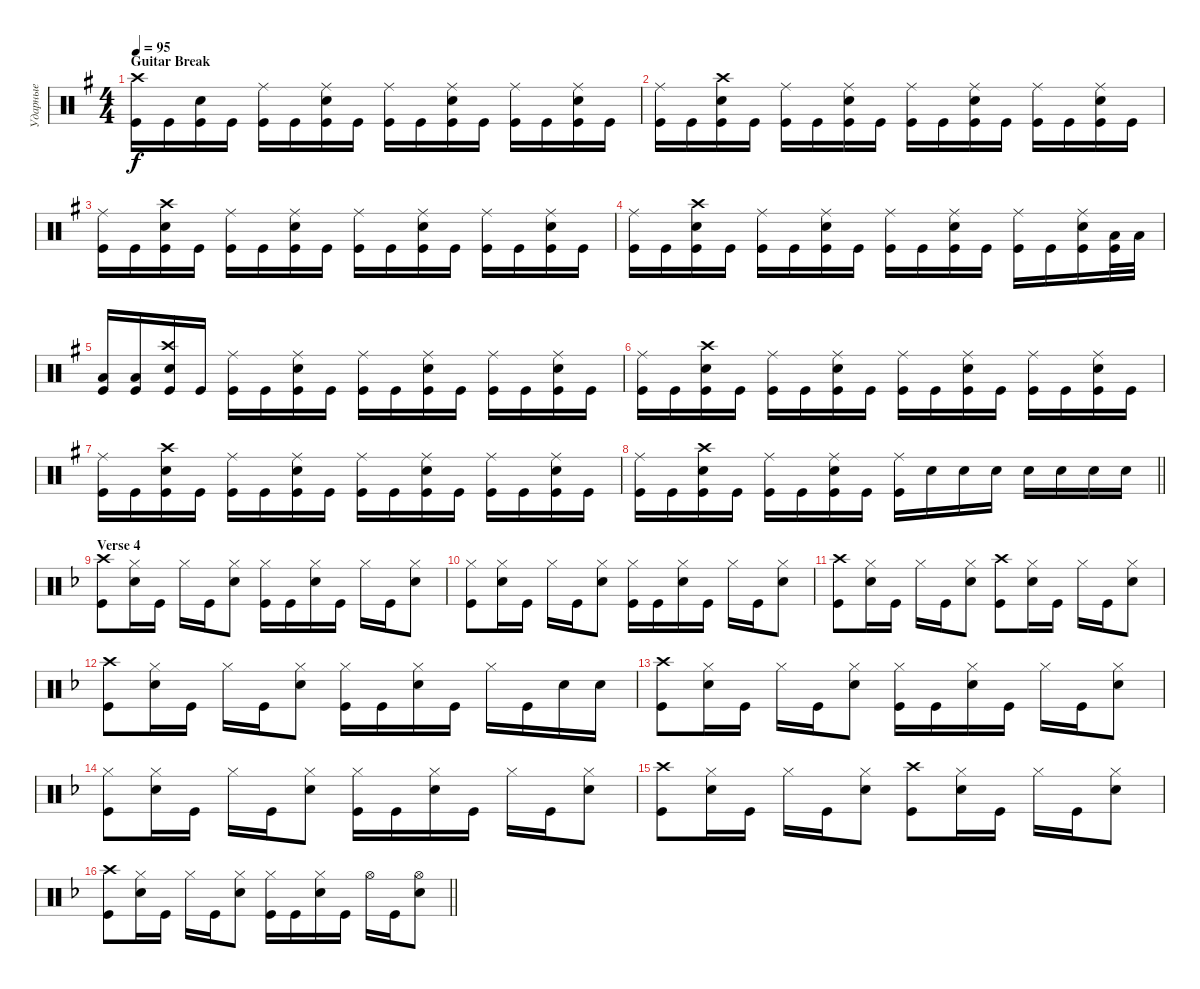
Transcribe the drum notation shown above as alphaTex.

\track ("Ударные" "Ударные") {instrument percussion}
\staff {score}
\articulation defaults
\ts (4 4)
\section ("" "Guitar Break")
\tempo 95
\clef neutral
\ks eminor
("Kick (hit)" "Crash high (hit)").16{dy f} "Kick (hit)".16 ("Snare (hit) 2" "Kick (hit)").16 "Kick (hit)".16 ("Kick (hit)" "Ride (middle)").16 "Kick (hit)".16 ("Kick (hit)" "Snare (hit) 2" "Ride (middle)").16 "Kick (hit)".16 ("Kick (hit)" "Ride (middle)").16 "Kick (hit)".16 ("Kick (hit)" "Snare (hit) 2" "Ride (middle)").16 "Kick (hit)".16 ("Ride (middle)" "Kick (hit)").16 "Kick (hit)".16 ("Snare (hit) 2" "Kick (hit)" "Ride (middle)").16 "Kick (hit)".16 |
("Kick (hit)" "Ride (middle)").16 "Kick (hit)".16 ("Snare (hit) 2" "Kick (hit)" "Crash high (hit)").16 "Kick (hit)".16 ("Kick (hit)" "Ride (middle)").16 "Kick (hit)".16 ("Kick (hit)" "Snare (hit) 2" "Ride (middle)").16 "Kick (hit)".16 ("Kick (hit)" "Ride (middle)").16 "Kick (hit)".16 ("Kick (hit)" "Snare (hit) 2" "Ride (middle)").16 "Kick (hit)".16 ("Ride (middle)" "Kick (hit)").16 "Kick (hit)".16 ("Snare (hit) 2" "Kick (hit)" "Ride (middle)").16 "Kick (hit)".16 |
("Kick (hit)" "Ride (middle)").16 "Kick (hit)".16 ("Snare (hit) 2" "Kick (hit)" "Crash high (hit)").16 "Kick (hit)".16 ("Kick (hit)" "Ride (middle)").16 "Kick (hit)".16 ("Kick (hit)" "Snare (hit) 2" "Ride (middle)").16 "Kick (hit)".16 ("Kick (hit)" "Ride (middle)").16 "Kick (hit)".16 ("Kick (hit)" "Snare (hit) 2" "Ride (middle)").16 "Kick (hit)".16 ("Ride (middle)" "Kick (hit)").16 "Kick (hit)".16 ("Snare (hit) 2" "Kick (hit)" "Ride (middle)").16 "Kick (hit)".16 |
("Kick (hit)" "Ride (middle)").16 "Kick (hit)".16 ("Snare (hit) 2" "Kick (hit)" "Crash high (hit)").16 "Kick (hit)".16 ("Kick (hit)" "Ride (middle)").16 "Kick (hit)".16 ("Kick (hit)" "Snare (hit) 2" "Ride (middle)").16 "Kick (hit)".16 ("Kick (hit)" "Ride (middle)").16 "Kick (hit)".16 ("Kick (hit)" "Snare (hit) 2" "Ride (middle)").16 "Kick (hit)".16 ("Ride (middle)" "Kick (hit)").16 "Kick (hit)".16 ("Snare (hit) 2" "Kick (hit)" "Ride (middle)").16 ("Kick (hit)" "Low Tom (hit)").32 "Low Tom (hit)".32 |
("Kick (hit)" "Low Tom (hit)").16 ("Kick (hit)" "Low Tom (hit)").16 ("Snare (hit) 2" "Kick (hit)" "Crash high (hit)").16 "Kick (hit)".16 ("Kick (hit)" "Ride (middle)").16 "Kick (hit)".16 ("Kick (hit)" "Snare (hit) 2" "Ride (middle)").16 "Kick (hit)".16 ("Kick (hit)" "Ride (middle)").16 "Kick (hit)".16 ("Kick (hit)" "Snare (hit) 2" "Ride (middle)").16 "Kick (hit)".16 ("Ride (middle)" "Kick (hit)").16 "Kick (hit)".16 ("Snare (hit) 2" "Kick (hit)" "Ride (middle)").16 "Kick (hit)".16 |
("Kick (hit)" "Ride (middle)").16 "Kick (hit)".16 ("Snare (hit) 2" "Kick (hit)" "Crash high (hit)").16 "Kick (hit)".16 ("Kick (hit)" "Ride (middle)").16 "Kick (hit)".16 ("Kick (hit)" "Snare (hit) 2" "Ride (middle)").16 "Kick (hit)".16 ("Kick (hit)" "Ride (middle)").16 "Kick (hit)".16 ("Kick (hit)" "Snare (hit) 2" "Ride (middle)").16 "Kick (hit)".16 ("Ride (middle)" "Kick (hit)").16 "Kick (hit)".16 ("Snare (hit) 2" "Kick (hit)" "Ride (middle)").16 "Kick (hit)".16 |
("Kick (hit)" "Ride (middle)").16 "Kick (hit)".16 ("Snare (hit) 2" "Kick (hit)" "Crash high (hit)").16 "Kick (hit)".16 ("Kick (hit)" "Ride (middle)").16 "Kick (hit)".16 ("Kick (hit)" "Snare (hit) 2" "Ride (middle)").16 "Kick (hit)".16 ("Kick (hit)" "Ride (middle)").16 "Kick (hit)".16 ("Kick (hit)" "Snare (hit) 2" "Ride (middle)").16 "Kick (hit)".16 ("Ride (middle)" "Kick (hit)").16 "Kick (hit)".16 ("Snare (hit) 2" "Kick (hit)" "Ride (middle)").16 "Kick (hit)".16 |
\barLineRight lightlight
("Kick (hit)" "Ride (middle)").16 "Kick (hit)".16 ("Snare (hit) 2" "Kick (hit)" "Crash high (hit)").16 "Kick (hit)".16 ("Kick (hit)" "Ride (middle)").16 "Kick (hit)".16 ("Kick (hit)" "Snare (hit) 2" "Ride (middle)").16 "Kick (hit)".16 ("Kick (hit)" "Ride (middle)").16 "Snare (hit) 2".16 "Snare (hit) 2".16 "Snare (hit) 2".16 "Snare (hit) 2".16 "Snare (hit) 2".16 "Snare (hit) 2".16 "Snare (hit) 2".16 |
\section ("" "Verse 4")
\ks dminor
("Kick (hit)" "Crash high (hit)").8 ("Snare (hit) 2" "Hi-Hat (closed)").16 "Kick (hit)".16 "Hi-Hat (closed)".16 "Kick (hit)".16 ("Snare (hit) 2" "Hi-Hat (closed)").8 ("Kick (hit)" "Hi-Hat (closed)").16 "Kick (hit)".16 ("Snare (hit) 2" "Hi-Hat (closed)").16 "Kick (hit)".16 "Hi-Hat (closed)".16 "Kick (hit)".16 ("Snare (hit) 2" "Hi-Hat (closed)").8 |
("Kick (hit)" "Hi-Hat (closed)").8 ("Snare (hit) 2" "Hi-Hat (closed)").16 "Kick (hit)".16 "Hi-Hat (closed)".16 "Kick (hit)".16 ("Snare (hit) 2" "Hi-Hat (closed)").8 ("Kick (hit)" "Hi-Hat (closed)").16 "Kick (hit)".16 ("Snare (hit) 2" "Hi-Hat (closed)").16 "Kick (hit)".16 "Hi-Hat (closed)".16 "Kick (hit)".16 ("Snare (hit) 2" "Hi-Hat (closed)").8 |
("Kick (hit)" "Crash high (hit)").8 ("Snare (hit) 2" "Hi-Hat (closed)").16 "Kick (hit)".16 "Hi-Hat (closed)".16 "Kick (hit)".16 ("Snare (hit) 2" "Hi-Hat (closed)").8 ("Kick (hit)" "Crash high (hit)").8 ("Snare (hit) 2" "Hi-Hat (closed)").16 "Kick (hit)".16 "Hi-Hat (closed)".16 "Kick (hit)".16 ("Snare (hit) 2" "Hi-Hat (closed)").8 |
("Kick (hit)" "Crash high (hit)").8 ("Snare (hit) 2" "Hi-Hat (closed)").16 "Kick (hit)".16 "Hi-Hat (closed)".16 "Kick (hit)".16 ("Snare (hit) 2" "Hi-Hat (closed)").8 ("Kick (hit)" "Hi-Hat (closed)").16 "Kick (hit)".16 ("Snare (hit) 2" "Hi-Hat (closed)").16 "Kick (hit)".16 "Hi-Hat (closed)".16 "Kick (hit)".16 "Snare (hit) 2".16 "Snare (hit) 2".16 |
("Kick (hit)" "Crash high (hit)").8 ("Snare (hit) 2" "Hi-Hat (closed)").16 "Kick (hit)".16 "Hi-Hat (closed)".16 "Kick (hit)".16 ("Snare (hit) 2" "Hi-Hat (closed)").8 ("Kick (hit)" "Hi-Hat (closed)").16 "Kick (hit)".16 ("Snare (hit) 2" "Hi-Hat (closed)").16 "Kick (hit)".16 "Hi-Hat (closed)".16 "Kick (hit)".16 ("Snare (hit) 2" "Hi-Hat (closed)").8 |
("Kick (hit)" "Hi-Hat (closed)").8 ("Snare (hit) 2" "Hi-Hat (closed)").16 "Kick (hit)".16 "Hi-Hat (closed)".16 "Kick (hit)".16 ("Snare (hit) 2" "Hi-Hat (closed)").8 ("Kick (hit)" "Hi-Hat (closed)").16 "Kick (hit)".16 ("Snare (hit) 2" "Hi-Hat (closed)").16 "Kick (hit)".16 "Hi-Hat (closed)".16 "Kick (hit)".16 ("Snare (hit) 2" "Hi-Hat (closed)").8 |
("Kick (hit)" "Crash high (hit)").8 ("Snare (hit) 2" "Hi-Hat (closed)").16 "Kick (hit)".16 "Hi-Hat (closed)".16 "Kick (hit)".16 ("Snare (hit) 2" "Hi-Hat (closed)").8 ("Kick (hit)" "Crash high (hit)").8 ("Snare (hit) 2" "Hi-Hat (closed)").16 "Kick (hit)".16 "Hi-Hat (closed)".16 "Kick (hit)".16 ("Snare (hit) 2" "Hi-Hat (closed)").8 |
\barLineRight lightlight
("Kick (hit)" "Crash high (hit)").8 ("Snare (hit) 2" "Hi-Hat (closed)").16 "Kick (hit)".16 "Hi-Hat (closed)".16 "Kick (hit)".16 ("Snare (hit) 2" "Hi-Hat (closed)").8 ("Kick (hit)" "Hi-Hat (closed)").16 "Kick (hit)".16 ("Snare (hit) 2" "Hi-Hat (closed)").16 "Kick (hit)".16 "Hi-Hat (open)".16 "Kick (hit)".16 ("Snare (hit) 2" "Hi-Hat (open)").8
